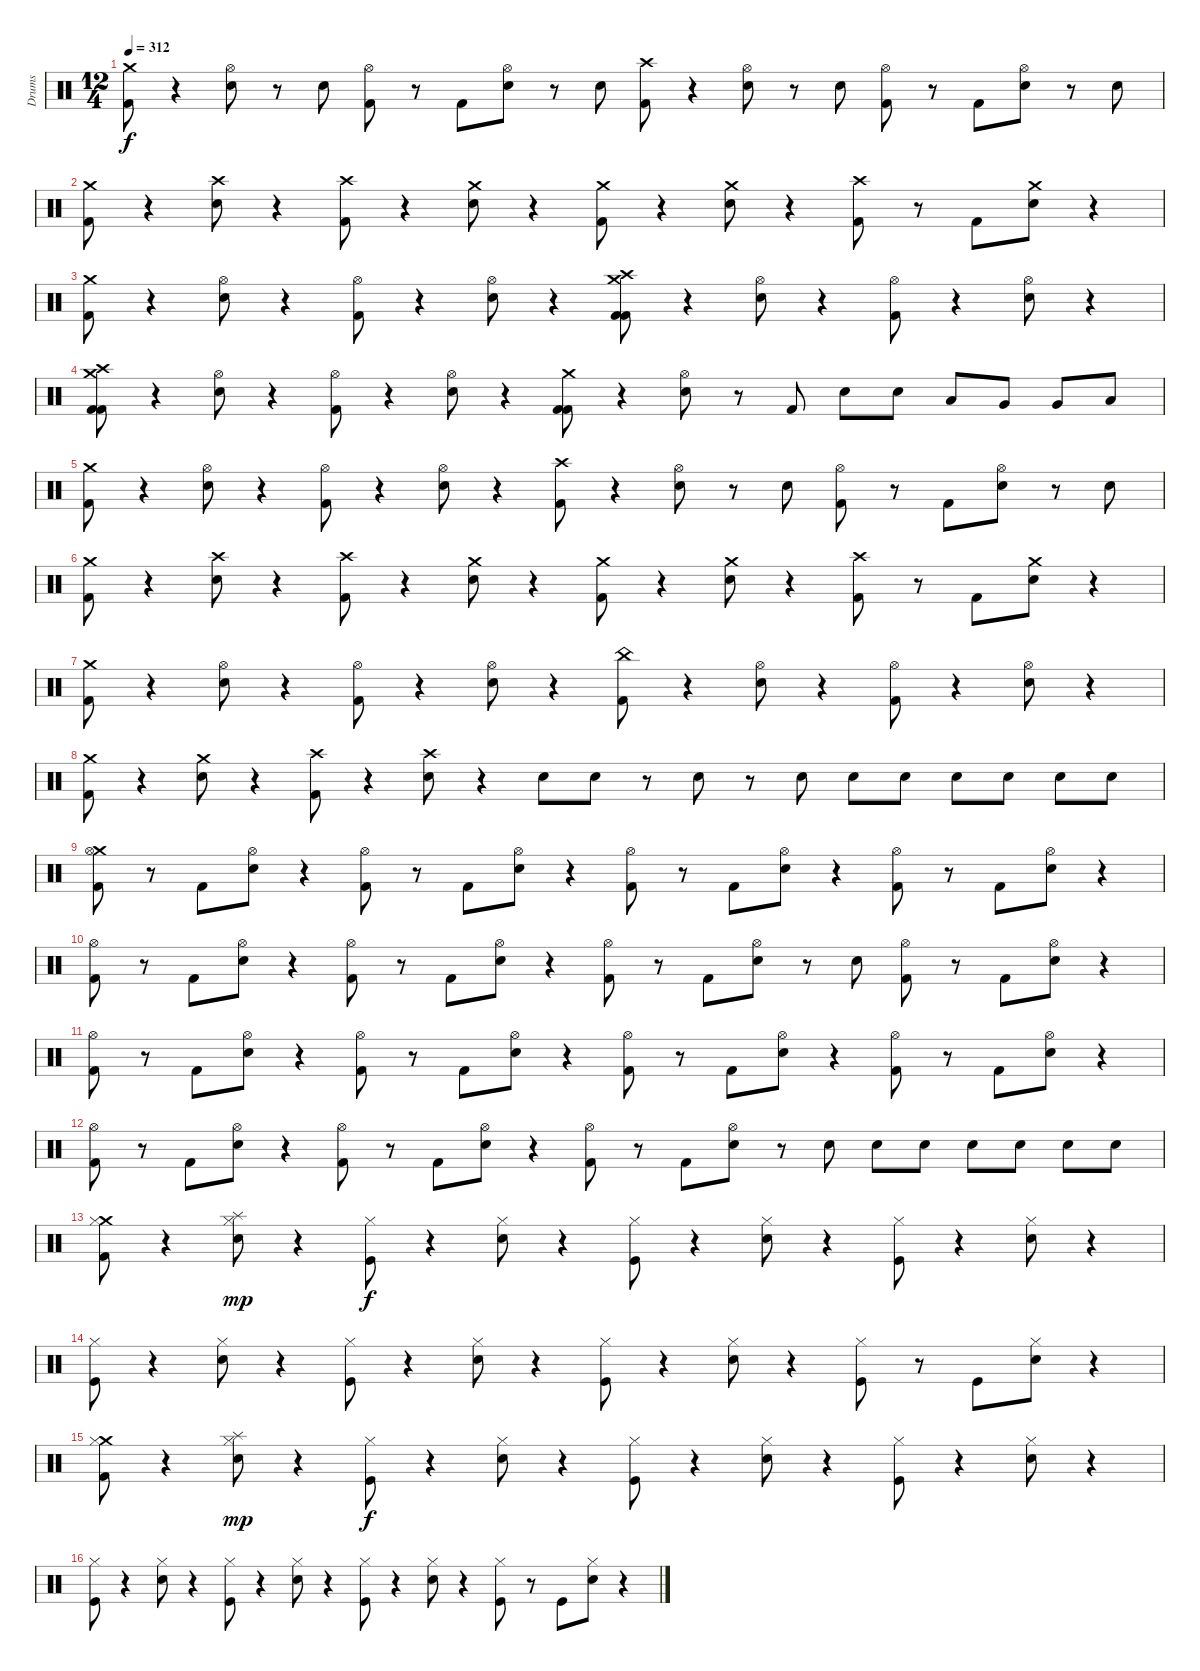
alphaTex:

\track ("Drums" "Drums") {instrument percussion}
\staff {score}
\articulation defaults
\ts (12 4)
\tempo 312
\clef neutral
\ks c
("Kick (hit) 2" "Crash medium (hit)").8{dy f} r.4 ("Hi-Hat (open)" "Electric Snare (hit)").8 r.8 "Electric Snare (hit)".8 ("Kick (hit) 2" "Hi-Hat (open)").8 r.8 "Kick (hit) 2".8 ("Electric Snare (hit)" "Hi-Hat (open)").8 r.8 "Electric Snare (hit)".8 ("Kick (hit) 2" "Crash high (hit)").8 r.4 ("Hi-Hat (open)" "Electric Snare (hit)").8 r.8 "Electric Snare (hit)".8 ("Kick (hit) 2" "Hi-Hat (open)").8 r.8 "Kick (hit) 2".8 ("Electric Snare (hit)" "Hi-Hat (open)").8 r.8 "Electric Snare (hit)".8 |
("Kick (hit) 2" "Crash medium (hit)").8 r.4 ("Electric Snare (hit)" "Crash high (hit)").8 r.4 ("Kick (hit) 2" "Crash high (hit)").8 r.4 ("Electric Snare (hit)" "Crash medium (hit)").8 r.4 ("Kick (hit) 2" "Crash medium (hit)").8 r.4 ("Electric Snare (hit)" "Crash medium (hit)").8 r.4 ("Kick (hit) 2" "Crash high (hit)").8 r.8 "Kick (hit) 2".8 ("Electric Snare (hit)" "Crash medium (hit)").8 r.4 |
("Kick (hit) 2" "Crash medium (hit)").8 r.4 ("Hi-Hat (open)" "Electric Snare (hit)").8 r.4 ("Kick (hit) 2" "Hi-Hat (open)").8 r.4 ("Electric Snare (hit)" "Hi-Hat (open)").8 r.4 ("Kick (hit) 2" "Crash high (hit)" "Kick (hit) 2" "Crash medium (hit)").8 r.4 ("Hi-Hat (open)" "Electric Snare (hit)").8 r.4 ("Kick (hit) 2" "Hi-Hat (open)").8 r.4 ("Electric Snare (hit)" "Hi-Hat (open)").8 r.4 |
("Kick (hit) 2" "Crash high (hit)" "Kick (hit) 2" "Crash medium (hit)").8 r.4 ("Hi-Hat (open)" "Electric Snare (hit)").8 r.4 ("Kick (hit) 2" "Hi-Hat (open)").8 r.4 ("Electric Snare (hit)" "Hi-Hat (open)").8 r.4 ("Kick (hit) 2" "Kick (hit) 2" "Crash medium (hit)").8 r.4 ("Hi-Hat (open)" "Electric Snare (hit)").8 r.8 "Kick (hit) 2".8 "Electric Snare (hit)".8 "Electric Snare (hit)".8 "Low Tom (hit)".8 "Very Low Tom (hit)".8 "Very Low Tom (hit)".8 "Low Floor Tom (hit)".8 |
("Kick (hit) 2" "Crash medium (hit)").8 r.4 ("Hi-Hat (open)" "Electric Snare (hit)").8 r.4 ("Kick (hit) 2" "Hi-Hat (open)").8 r.4 ("Electric Snare (hit)" "Hi-Hat (open)").8 r.4 ("Kick (hit) 2" "Crash high (hit)").8 r.4 ("Hi-Hat (open)" "Electric Snare (hit)").8 r.8 "Electric Snare (hit)".8 ("Kick (hit) 2" "Hi-Hat (open)").8 r.8 "Kick (hit) 2".8 ("Electric Snare (hit)" "Hi-Hat (open)").8 r.8 "Electric Snare (hit)".8 |
("Kick (hit) 2" "Crash medium (hit)").8 r.4 ("Electric Snare (hit)" "Crash high (hit)").8 r.4 ("Kick (hit) 2" "Crash high (hit)").8 r.4 ("Electric Snare (hit)" "Crash medium (hit)").8 r.4 ("Kick (hit) 2" "Crash medium (hit)").8 r.4 ("Electric Snare (hit)" "Crash medium (hit)").8 r.4 ("Kick (hit) 2" "Crash high (hit)").8 r.8 "Kick (hit) 2".8 ("Electric Snare (hit)" "Crash medium (hit)").8 r.4 |
("Kick (hit) 2" "Crash medium (hit)").8 r.4 ("Hi-Hat (open)" "Electric Snare (hit)").8 r.4 ("Kick (hit) 2" "Hi-Hat (open)").8 r.4 ("Electric Snare (hit)" "Hi-Hat (open)").8 r.4 ("Kick (hit) 2" "China (hit)").8 r.4 ("Hi-Hat (open)" "Electric Snare (hit)").8 r.4 ("Kick (hit) 2" "Hi-Hat (open)").8 r.4 ("Electric Snare (hit)" "Hi-Hat (open)").8 r.4 |
("Kick (hit) 2" "Crash medium (hit)").8 r.4 ("Electric Snare (hit)" "Crash medium (hit)").8 r.4 ("Kick (hit) 2" "Crash high (hit)").8 r.4 ("Electric Snare (hit)" "Crash high (hit)").8 r.4 "Electric Snare (hit)".8 "Electric Snare (hit)".8 r.8 "Electric Snare (hit)".8 r.8 "Electric Snare (hit)".8 "Electric Snare (hit)".8 "Electric Snare (hit)".8 "Electric Snare (hit)".8 "Electric Snare (hit)".8 "Electric Snare (hit)".8 "Electric Snare (hit)".8 |
("Crash medium (hit)" "Kick (hit) 2" "Hi-Hat (open)").8 r.8 "Kick (hit) 2".8 ("Hi-Hat (open)" "Electric Snare (hit)").8 r.4 ("Hi-Hat (open)" "Kick (hit) 2").8 r.8 "Kick (hit) 2".8 ("Electric Snare (hit)" "Hi-Hat (open)").8 r.4 ("Hi-Hat (open)" "Kick (hit) 2").8 r.8 "Kick (hit) 2".8 ("Hi-Hat (open)" "Electric Snare (hit)").8 r.4 ("Hi-Hat (open)" "Kick (hit) 2").8 r.8 "Kick (hit) 2".8 ("Hi-Hat (open)" "Electric Snare (hit)").8 r.4 |
("Hi-Hat (open)" "Kick (hit) 2").8 r.8 "Kick (hit) 2".8 ("Hi-Hat (open)" "Electric Snare (hit)").8 r.4 ("Hi-Hat (open)" "Kick (hit) 2").8 r.8 "Kick (hit) 2".8 ("Hi-Hat (open)" "Electric Snare (hit)").8 r.4 ("Hi-Hat (open)" "Kick (hit) 2").8 r.8 "Kick (hit) 2".8 ("Hi-Hat (open)" "Electric Snare (hit)").8 r.8 "Electric Snare (hit)".8 ("Hi-Hat (open)" "Kick (hit) 2").8 r.8 "Kick (hit) 2".8 ("Hi-Hat (open)" "Electric Snare (hit)").8 r.4 |
("Kick (hit) 2" "Hi-Hat (open)").8 r.8 "Kick (hit) 2".8 ("Hi-Hat (open)" "Electric Snare (hit)").8 r.4 ("Hi-Hat (open)" "Kick (hit) 2").8 r.8 "Kick (hit) 2".8 ("Electric Snare (hit)" "Hi-Hat (open)").8 r.4 ("Hi-Hat (open)" "Kick (hit) 2").8 r.8 "Kick (hit) 2".8 ("Hi-Hat (open)" "Electric Snare (hit)").8 r.4 ("Hi-Hat (open)" "Kick (hit) 2").8 r.8 "Kick (hit) 2".8 ("Hi-Hat (open)" "Electric Snare (hit)").8 r.4 |
("Hi-Hat (open)" "Kick (hit) 2").8 r.8 "Kick (hit) 2".8 ("Hi-Hat (open)" "Electric Snare (hit)").8 r.4 ("Hi-Hat (open)" "Kick (hit) 2").8 r.8 "Kick (hit) 2".8 ("Hi-Hat (open)" "Electric Snare (hit)").8 r.4 ("Hi-Hat (open)" "Kick (hit) 2").8 r.8 "Kick (hit) 2".8 ("Hi-Hat (open)" "Electric Snare (hit)").8 r.8 "Electric Snare (hit)".8 "Electric Snare (hit)".8 "Electric Snare (hit)".8 "Electric Snare (hit)".8 "Electric Snare (hit)".8 "Electric Snare (hit)".8 "Electric Snare (hit)".8 |
("Crash medium (hit)" "Hi-Hat (closed)" "Kick (hit) 2").8 r.4 ("Splash (hit)" "Hi-Hat (closed)" "Electric Snare (hit)").8{dy mp} r.4 ("Hi-Hat (closed)" "Kick (hit)").8{dy f} r.4 ("Hi-Hat (closed)" "Electric Snare (hit)").8 r.4 ("Kick (hit)" "Hi-Hat (closed)").8 r.4 ("Electric Snare (hit)" "Hi-Hat (closed)").8 r.4 ("Hi-Hat (closed)" "Kick (hit)").8 r.4 ("Hi-Hat (closed)" "Electric Snare (hit)").8 r.4 |
("Kick (hit)" "Hi-Hat (closed)").8 r.4 ("Electric Snare (hit)" "Hi-Hat (closed)").8 r.4 ("Hi-Hat (closed)" "Kick (hit)").8 r.4 ("Hi-Hat (closed)" "Electric Snare (hit)").8 r.4 ("Kick (hit)" "Hi-Hat (closed)").8 r.4 ("Electric Snare (hit)" "Hi-Hat (closed)").8 r.4 ("Hi-Hat (closed)" "Kick (hit)").8 r.8 "Kick (hit)".8 ("Hi-Hat (closed)" "Electric Snare (hit)").8 r.4 |
("Crash medium (hit)" "Hi-Hat (closed)" "Kick (hit) 2").8 r.4 ("Hi-Hat (closed)" "Electric Snare (hit)" "Splash (hit)").8{dy mp} r.4 ("Hi-Hat (closed)" "Kick (hit)").8{dy f} r.4 ("Hi-Hat (closed)" "Electric Snare (hit)").8 r.4 ("Kick (hit)" "Hi-Hat (closed)").8 r.4 ("Electric Snare (hit)" "Hi-Hat (closed)").8 r.4 ("Hi-Hat (closed)" "Kick (hit)").8 r.4 ("Hi-Hat (closed)" "Electric Snare (hit)").8 r.4 |
("Kick (hit)" "Hi-Hat (closed)").8 r.4 ("Electric Snare (hit)" "Hi-Hat (closed)").8 r.4 ("Hi-Hat (closed)" "Kick (hit)").8 r.4 ("Hi-Hat (closed)" "Electric Snare (hit)").8 r.4 ("Kick (hit)" "Hi-Hat (closed)").8 r.4 ("Electric Snare (hit)" "Hi-Hat (closed)").8 r.4 ("Hi-Hat (closed)" "Kick (hit)").8 r.8 "Kick (hit)".8 ("Hi-Hat (closed)" "Electric Snare (hit)").8 r.4
